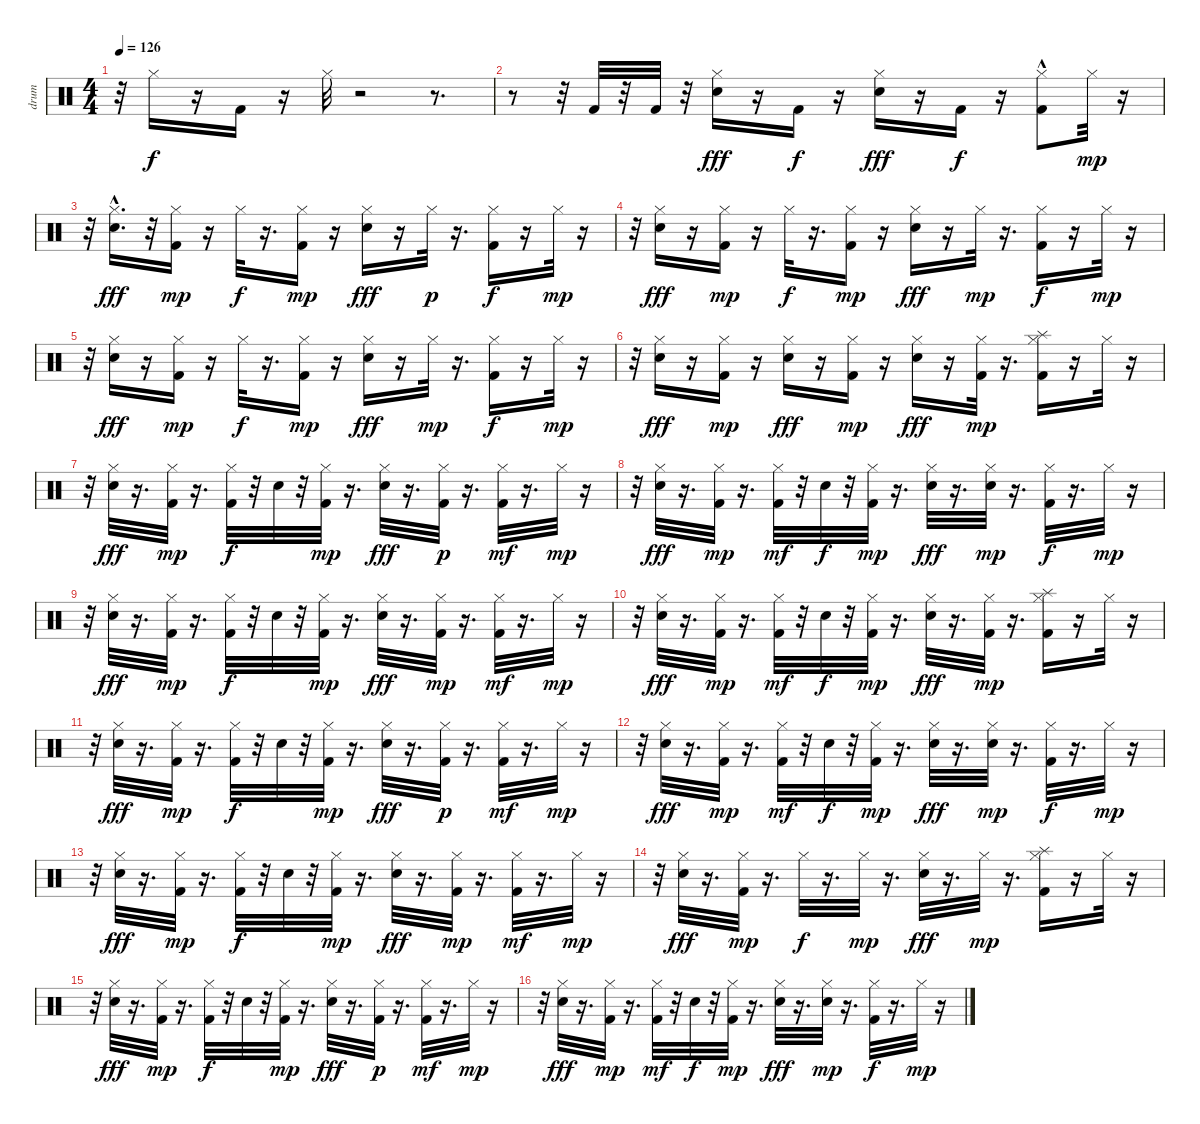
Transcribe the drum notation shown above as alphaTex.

\track ("drum" "drum") {instrument percussion}
\staff {score}
\articulation defaults
\ts (4 4)
\tempo 126
\clef neutral
\ks c
r.32{dy f} "Hi-Hat (closed)".16 r.16 "Kick (hit) 2".16 r.16 "Hi-Hat (closed)".32 r.2 r.8{d} |
r.8 r.32 "Kick (hit) 2".32 r.32 "Kick (hit) 2".32 r.32 ("Hi-Hat (closed)" "Electric Snare (hit)").16{dy fff} r.16 "Kick (hit) 2".16{dy f} r.16 ("Electric Snare (hit)" "Hi-Hat (closed)").16{dy fff} r.16 "Kick (hit) 2".16{dy f} r.16 ("Kick (hit) 2"{hac} "Hi-Hat (closed)").8 "Hi-Hat (closed)".32{dy mp} r.16 |
r.32 ("Electric Snare (hit)"{hac} "Hi-Hat (closed)").16{d dy fff} r.32 ("Kick (hit) 2" "Hi-Hat (closed)").16{dy mp} r.16 "Hi-Hat (closed)".32{dy f} r.16{d} ("Kick (hit) 2" "Hi-Hat (closed)").16{dy mp} r.16 ("Electric Snare (hit)" "Hi-Hat (closed)").16{dy fff} r.16 "Hi-Hat (closed)".32{dy p} r.16{d} ("Kick (hit) 2" "Hi-Hat (closed)").16{dy f} r.16 "Hi-Hat (closed)".32{dy mp} r.16 |
r.32 ("Electric Snare (hit)" "Hi-Hat (closed)").16{dy fff} r.16 ("Kick (hit) 2" "Hi-Hat (closed)").16{dy mp} r.16 "Hi-Hat (closed)".32{dy f} r.16{d} ("Kick (hit) 2" "Hi-Hat (closed)").16{dy mp} r.16 ("Electric Snare (hit)" "Hi-Hat (closed)").16{dy fff} r.16 "Hi-Hat (closed)".32{dy mp} r.16{d} ("Kick (hit) 2" "Hi-Hat (closed)").16{dy f} r.16 "Hi-Hat (closed)".32{dy mp} r.16 |
r.32 ("Electric Snare (hit)" "Hi-Hat (closed)").16{dy fff} r.16 ("Kick (hit) 2" "Hi-Hat (closed)").16{dy mp} r.16 "Hi-Hat (closed)".32{dy f} r.16{d} ("Kick (hit) 2" "Hi-Hat (closed)").16{dy mp} r.16 ("Electric Snare (hit)" "Hi-Hat (closed)").16{dy fff} r.16 "Hi-Hat (closed)".32{dy mp} r.16{d} ("Kick (hit) 2" "Hi-Hat (closed)").16{dy f} r.16 "Hi-Hat (closed)".32{dy mp} r.16 |
r.32 ("Electric Snare (hit)" "Hi-Hat (closed)").16{dy fff} r.16 ("Kick (hit) 2" "Hi-Hat (closed)").16{dy mp} r.16 ("Electric Snare (hit)" "Hi-Hat (closed)").16{dy fff} r.16 ("Kick (hit) 2" "Hi-Hat (closed)").16{dy mp} r.16 ("Electric Snare (hit)" "Hi-Hat (closed)").16{dy fff} r.16 ("Kick (hit) 2" "Hi-Hat (closed)").32{dy mp} r.16{d} ("Splash (hit)" "Kick (hit) 2" "Hi-Hat (closed)").16 r.16 "Hi-Hat (closed)".32 r.16 |
r.32 ("Electric Snare (hit)" "Hi-Hat (closed)").32{dy fff} r.16{d} ("Kick (hit) 2" "Hi-Hat (closed)").32{dy mp} r.16{d} ("Kick (hit) 2" "Hi-Hat (closed)").32{dy f} r.32 "Electric Snare (hit)".32 r.32 ("Kick (hit) 2" "Hi-Hat (closed)").32{dy mp} r.16{d} ("Electric Snare (hit)" "Hi-Hat (closed)").32{dy fff} r.16{d} ("Kick (hit) 2" "Hi-Hat (closed)").32{dy p} r.16{d} ("Kick (hit) 2" "Hi-Hat (closed)").32{dy mf} r.16{d} "Hi-Hat (closed)".32{dy mp} r.16 |
r.32 ("Electric Snare (hit)" "Hi-Hat (closed)").32{dy fff} r.16{d} ("Kick (hit) 2" "Hi-Hat (closed)").32{dy mp} r.16{d} ("Kick (hit) 2" "Hi-Hat (closed)").32{dy mf} r.32 "Electric Snare (hit)".32{dy f} r.32 ("Kick (hit) 2" "Hi-Hat (closed)").32{dy mp} r.16{d} ("Electric Snare (hit)" "Hi-Hat (closed)").32{dy fff} r.16{d} ("Electric Snare (hit)" "Hi-Hat (closed)").32{dy mp} r.16{d} ("Kick (hit) 2" "Hi-Hat (closed)").32{dy f} r.16{d} "Hi-Hat (closed)".32{dy mp} r.16 |
r.32 ("Electric Snare (hit)" "Hi-Hat (closed)").32{dy fff} r.16{d} ("Kick (hit) 2" "Hi-Hat (closed)").32{dy mp} r.16{d} ("Kick (hit) 2" "Hi-Hat (closed)").32{dy f} r.32 "Electric Snare (hit)".32 r.32 ("Kick (hit) 2" "Hi-Hat (closed)").32{dy mp} r.16{d} ("Electric Snare (hit)" "Hi-Hat (closed)").32{dy fff} r.16{d} ("Kick (hit) 2" "Hi-Hat (closed)").32{dy mp} r.16{d} ("Kick (hit) 2" "Hi-Hat (closed)").32{dy mf} r.16{d} "Hi-Hat (closed)".32{dy mp} r.16 |
r.32 ("Electric Snare (hit)" "Hi-Hat (closed)").32{dy fff} r.16{d} ("Kick (hit) 2" "Hi-Hat (closed)").32{dy mp} r.16{d} ("Kick (hit) 2" "Hi-Hat (closed)").32{dy mf} r.32 "Electric Snare (hit)".32{dy f} r.32 ("Kick (hit) 2" "Hi-Hat (closed)").32{dy mp} r.16{d} ("Electric Snare (hit)" "Hi-Hat (closed)").32{dy fff} r.16{d} ("Kick (hit) 2" "Hi-Hat (closed)").32{dy mp} r.16{d} ("Splash (hit)" "Kick (hit) 2" "Hi-Hat (closed)").16 r.16 "Hi-Hat (closed)".32 r.16 |
r.32 ("Electric Snare (hit)" "Hi-Hat (closed)").32{dy fff} r.16{d} ("Kick (hit) 2" "Hi-Hat (closed)").32{dy mp} r.16{d} ("Kick (hit) 2" "Hi-Hat (closed)").32{dy f} r.32 "Electric Snare (hit)".32 r.32 ("Kick (hit) 2" "Hi-Hat (closed)").32{dy mp} r.16{d} ("Electric Snare (hit)" "Hi-Hat (closed)").32{dy fff} r.16{d} ("Kick (hit) 2" "Hi-Hat (closed)").32{dy p} r.16{d} ("Kick (hit) 2" "Hi-Hat (closed)").32{dy mf} r.16{d} "Hi-Hat (closed)".32{dy mp} r.16 |
r.32 ("Electric Snare (hit)" "Hi-Hat (closed)").32{dy fff} r.16{d} ("Kick (hit) 2" "Hi-Hat (closed)").32{dy mp} r.16{d} ("Kick (hit) 2" "Hi-Hat (closed)").32{dy mf} r.32 "Electric Snare (hit)".32{dy f} r.32 ("Kick (hit) 2" "Hi-Hat (closed)").32{dy mp} r.16{d} ("Electric Snare (hit)" "Hi-Hat (closed)").32{dy fff} r.16{d} ("Electric Snare (hit)" "Hi-Hat (closed)").32{dy mp} r.16{d} ("Kick (hit) 2" "Hi-Hat (closed)").32{dy f} r.16{d} "Hi-Hat (closed)".32{dy mp} r.16 |
r.32 ("Electric Snare (hit)" "Hi-Hat (closed)").32{dy fff} r.16{d} ("Kick (hit) 2" "Hi-Hat (closed)").32{dy mp} r.16{d} ("Kick (hit) 2" "Hi-Hat (closed)").32{dy f} r.32 "Electric Snare (hit)".32 r.32 ("Kick (hit) 2" "Hi-Hat (closed)").32{dy mp} r.16{d} ("Electric Snare (hit)" "Hi-Hat (closed)").32{dy fff} r.16{d} ("Kick (hit) 2" "Hi-Hat (closed)").32{dy mp} r.16{d} ("Kick (hit) 2" "Hi-Hat (closed)").32{dy mf} r.16{d} "Hi-Hat (closed)".32{dy mp} r.16 |
r.32 ("Electric Snare (hit)" "Hi-Hat (closed)").32{dy fff} r.16{d} ("Kick (hit) 2" "Hi-Hat (closed)").32{dy mp} r.16{d} "Hi-Hat (closed)".32{dy f} r.16{d} "Hi-Hat (closed)".32{dy mp} r.16{d} ("Electric Snare (hit)" "Hi-Hat (closed)").32{dy fff} r.16{d} "Hi-Hat (closed)".32{dy mp} r.16{d} ("Splash (hit)" "Kick (hit) 2" "Hi-Hat (closed)").16 r.16 "Hi-Hat (closed)".32 r.16 |
r.32 ("Electric Snare (hit)" "Hi-Hat (closed)").32{dy fff} r.16{d} ("Kick (hit) 2" "Hi-Hat (closed)").32{dy mp} r.16{d} ("Kick (hit) 2" "Hi-Hat (closed)").32{dy f} r.32 "Electric Snare (hit)".32 r.32 ("Kick (hit) 2" "Hi-Hat (closed)").32{dy mp} r.16{d} ("Electric Snare (hit)" "Hi-Hat (closed)").32{dy fff} r.16{d} ("Kick (hit) 2" "Hi-Hat (closed)").32{dy p} r.16{d} ("Kick (hit) 2" "Hi-Hat (closed)").32{dy mf} r.16{d} "Hi-Hat (closed)".32{dy mp} r.16 |
r.32 ("Electric Snare (hit)" "Hi-Hat (closed)").32{dy fff} r.16{d} ("Kick (hit) 2" "Hi-Hat (closed)").32{dy mp} r.16{d} ("Kick (hit) 2" "Hi-Hat (closed)").32{dy mf} r.32 "Electric Snare (hit)".32{dy f} r.32 ("Kick (hit) 2" "Hi-Hat (closed)").32{dy mp} r.16{d} ("Electric Snare (hit)" "Hi-Hat (closed)").32{dy fff} r.16{d} ("Electric Snare (hit)" "Hi-Hat (closed)").32{dy mp} r.16{d} ("Kick (hit) 2" "Hi-Hat (closed)").32{dy f} r.16{d} "Hi-Hat (closed)".32{dy mp} r.16
